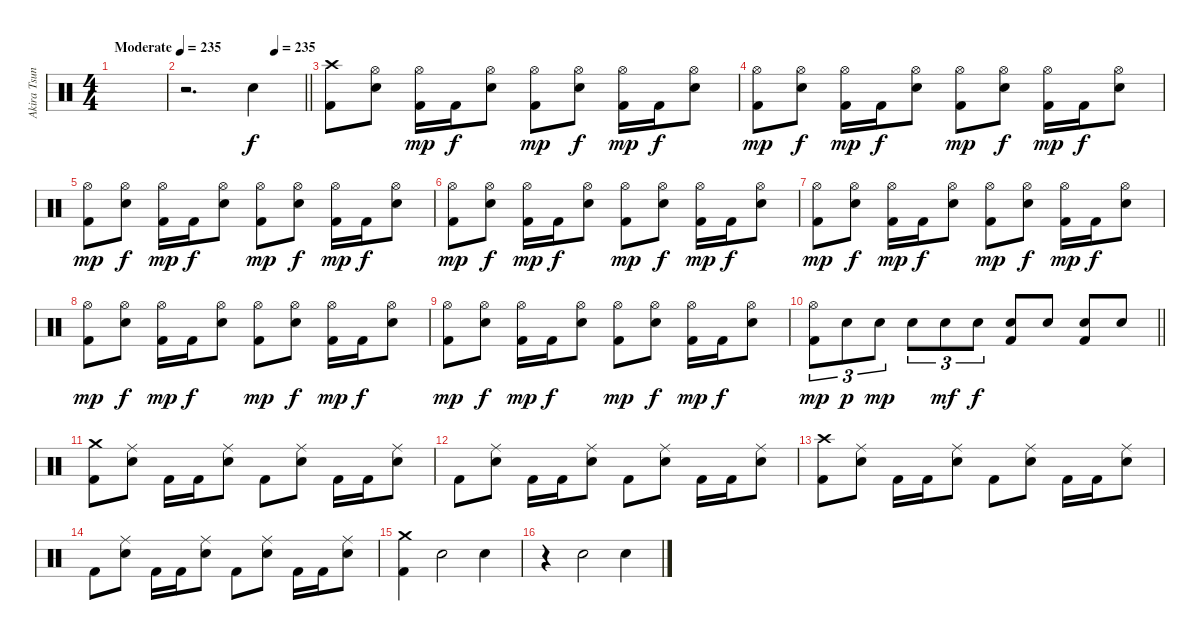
\track ("Akira Tsuneoka" "Akira Tsun") {instrument percussion}
\staff {score}
\articulation defaults
\ts (4 4)
\tempo (235 "Moderate")
\tempo 167
\tempo (235 "Moderate")
\clef neutral
\ks c
|
\tempo (235 0.75)
\barLineRight lightlight
r.2{d} "Electric Snare (hit)".4 |
\section ("" "")
("Crash high (hit)" "Kick (hit) 2").8 ("Hi-Hat (open)" "Electric Snare (hit)").8 ("Hi-Hat (open)" "Kick (hit) 2").16{dy mp} "Kick (hit) 2".16{dy f} ("Hi-Hat (open)" "Electric Snare (hit)").8 ("Hi-Hat (open)" "Kick (hit) 2").8{dy mp} ("Hi-Hat (open)" "Electric Snare (hit)").8{dy f} ("Hi-Hat (open)" "Kick (hit) 2").16{dy mp} "Kick (hit) 2".16{dy f} ("Hi-Hat (open)" "Electric Snare (hit)").8 |
("Hi-Hat (open)" "Kick (hit) 2").8{dy mp} ("Hi-Hat (open)" "Electric Snare (hit)").8{dy f} ("Hi-Hat (open)" "Kick (hit) 2").16{dy mp} "Kick (hit) 2".16{dy f} ("Hi-Hat (open)" "Electric Snare (hit)").8 ("Hi-Hat (open)" "Kick (hit) 2").8{dy mp} ("Hi-Hat (open)" "Electric Snare (hit)").8{dy f} ("Hi-Hat (open)" "Kick (hit) 2").16{dy mp} "Kick (hit) 2".16{dy f} ("Hi-Hat (open)" "Electric Snare (hit)").8 |
("Hi-Hat (open)" "Kick (hit) 2").8{dy mp} ("Hi-Hat (open)" "Electric Snare (hit)").8{dy f} ("Hi-Hat (open)" "Kick (hit) 2").16{dy mp} "Kick (hit) 2".16{dy f} ("Hi-Hat (open)" "Electric Snare (hit)").8 ("Hi-Hat (open)" "Kick (hit) 2").8{dy mp} ("Hi-Hat (open)" "Electric Snare (hit)").8{dy f} ("Hi-Hat (open)" "Kick (hit) 2").16{dy mp} "Kick (hit) 2".16{dy f} ("Hi-Hat (open)" "Electric Snare (hit)").8 |
("Hi-Hat (open)" "Kick (hit) 2").8{dy mp} ("Hi-Hat (open)" "Electric Snare (hit)").8{dy f} ("Hi-Hat (open)" "Kick (hit) 2").16{dy mp} "Kick (hit) 2".16{dy f} ("Hi-Hat (open)" "Electric Snare (hit)").8 ("Hi-Hat (open)" "Kick (hit) 2").8{dy mp} ("Hi-Hat (open)" "Electric Snare (hit)").8{dy f} ("Hi-Hat (open)" "Kick (hit) 2").16{dy mp} "Kick (hit) 2".16{dy f} ("Hi-Hat (open)" "Electric Snare (hit)").8 |
("Hi-Hat (open)" "Kick (hit) 2").8{dy mp} ("Hi-Hat (open)" "Electric Snare (hit)").8{dy f} ("Hi-Hat (open)" "Kick (hit) 2").16{dy mp} "Kick (hit) 2".16{dy f} ("Hi-Hat (open)" "Electric Snare (hit)").8 ("Hi-Hat (open)" "Kick (hit) 2").8{dy mp} ("Hi-Hat (open)" "Electric Snare (hit)").8{dy f} ("Hi-Hat (open)" "Kick (hit) 2").16{dy mp} "Kick (hit) 2".16{dy f} ("Hi-Hat (open)" "Electric Snare (hit)").8 |
("Hi-Hat (open)" "Kick (hit) 2").8{dy mp} ("Hi-Hat (open)" "Electric Snare (hit)").8{dy f} ("Hi-Hat (open)" "Kick (hit) 2").16{dy mp} "Kick (hit) 2".16{dy f} ("Hi-Hat (open)" "Electric Snare (hit)").8 ("Hi-Hat (open)" "Kick (hit) 2").8{dy mp} ("Hi-Hat (open)" "Electric Snare (hit)").8{dy f} ("Hi-Hat (open)" "Kick (hit) 2").16{dy mp} "Kick (hit) 2".16{dy f} ("Hi-Hat (open)" "Electric Snare (hit)").8 |
("Hi-Hat (open)" "Kick (hit) 2").8{dy mp} ("Hi-Hat (open)" "Electric Snare (hit)").8{dy f} ("Hi-Hat (open)" "Kick (hit) 2").16{dy mp} "Kick (hit) 2".16{dy f} ("Hi-Hat (open)" "Electric Snare (hit)").8 ("Hi-Hat (open)" "Kick (hit) 2").8{dy mp} ("Hi-Hat (open)" "Electric Snare (hit)").8{dy f} ("Hi-Hat (open)" "Kick (hit) 2").16{dy mp} "Kick (hit) 2".16{dy f} ("Hi-Hat (open)" "Electric Snare (hit)").8 |
\barLineRight lightlight
("Hi-Hat (open)" "Kick (hit) 2").8{tu (3 2) dy mp} "Electric Snare (hit)".8{tu (3 2) dy p} "Electric Snare (hit)".8{tu (3 2) dy mp} "Electric Snare (hit)".8{tu (3 2)} "Electric Snare (hit)".8{tu (3 2) dy mf} "Electric Snare (hit)".8{tu (3 2) dy f} ("Electric Snare (hit)" "Kick (hit) 2").8 "Electric Snare (hit)".8 ("Electric Snare (hit)" "Kick (hit) 2").8 "Electric Snare (hit)".8 |
\section ("" "")
("Crash medium (hit)" "Kick (hit) 2").8 ("Ride (middle)" "Electric Snare (hit)").8 "Kick (hit) 2".16 "Kick (hit) 2".16 ("Ride (middle)" "Electric Snare (hit)").8 "Kick (hit) 2".8 ("Ride (middle)" "Electric Snare (hit)").8 "Kick (hit) 2".16 "Kick (hit) 2".16 ("Ride (middle)" "Electric Snare (hit)").8 |
"Kick (hit) 2".8 ("Ride (middle)" "Electric Snare (hit)").8 "Kick (hit) 2".16 "Kick (hit) 2".16 ("Ride (middle)" "Electric Snare (hit)").8 "Kick (hit) 2".8 ("Ride (middle)" "Electric Snare (hit)").8 "Kick (hit) 2".16 "Kick (hit) 2".16 ("Ride (middle)" "Electric Snare (hit)").8 |
("Crash high (hit)" "Kick (hit) 2").8 ("Ride (middle)" "Electric Snare (hit)").8 "Kick (hit) 2".16 "Kick (hit) 2".16 ("Ride (middle)" "Electric Snare (hit)").8 "Kick (hit) 2".8 ("Ride (middle)" "Electric Snare (hit)").8 "Kick (hit) 2".16 "Kick (hit) 2".16 ("Ride (middle)" "Electric Snare (hit)").8 |
"Kick (hit) 2".8 ("Ride (middle)" "Electric Snare (hit)").8 "Kick (hit) 2".16 "Kick (hit) 2".16 ("Ride (middle)" "Electric Snare (hit)").8 "Kick (hit) 2".8 ("Ride (middle)" "Electric Snare (hit)").8 "Kick (hit) 2".16 "Kick (hit) 2".16 ("Ride (middle)" "Electric Snare (hit)").8 |
("Crash medium (hit)" "Kick (hit) 2").4 "Electric Snare (hit)".2 "Electric Snare (hit)".4 |
r.4 "Electric Snare (hit)".2 "Electric Snare (hit)".4
